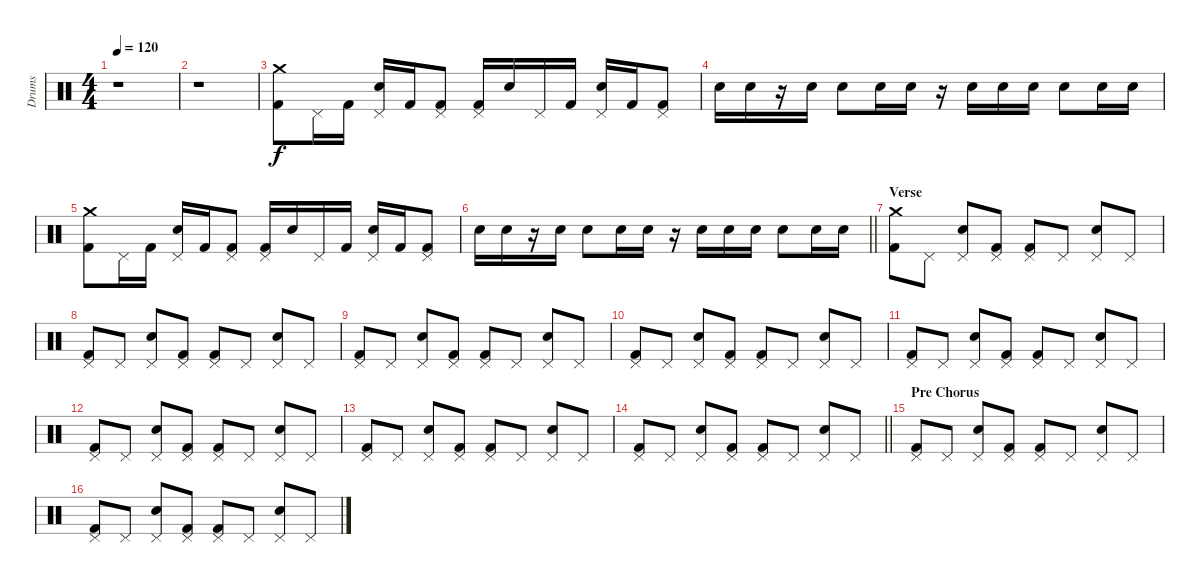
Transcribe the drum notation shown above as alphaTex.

\track ("Drums" "Drums") {instrument percussion}
\staff {score}
\articulation defaults
\ts (4 4)
\tempo 120
\clef neutral
\ks c
r.1{dy mp} |
r.1 |
("Crash medium (hit)" "Kick (hit) 2").8{dy f} "Pedal Hi-Hat (hit)".16 "Kick (hit) 2".16 ("Pedal Hi-Hat (hit)" "Electric Snare (hit)").16 "Kick (hit) 2".16 ("Pedal Hi-Hat (hit)" "Kick (hit) 2").8 ("Pedal Hi-Hat (hit)" "Kick (hit) 2").16 "Electric Snare (hit)".16 "Pedal Hi-Hat (hit)".16 "Kick (hit) 2".16 ("Pedal Hi-Hat (hit)" "Electric Snare (hit)").16 "Kick (hit) 2".16 ("Pedal Hi-Hat (hit)" "Kick (hit) 2").8 |
"Electric Snare (hit)".16 "Electric Snare (hit)".16 r.16 "Electric Snare (hit)".16 "Electric Snare (hit)".8 "Electric Snare (hit)".16 "Electric Snare (hit)".16 r.16 "Electric Snare (hit)".16 "Electric Snare (hit)".16 "Electric Snare (hit)".16 "Electric Snare (hit)".8 "Electric Snare (hit)".16 "Electric Snare (hit)".16 |
("Crash medium (hit)" "Kick (hit) 2").8 "Pedal Hi-Hat (hit)".16 "Kick (hit) 2".16 ("Pedal Hi-Hat (hit)" "Electric Snare (hit)").16 "Kick (hit) 2".16 ("Pedal Hi-Hat (hit)" "Kick (hit) 2").8 ("Pedal Hi-Hat (hit)" "Kick (hit) 2").16 "Electric Snare (hit)".16 "Pedal Hi-Hat (hit)".16 "Kick (hit) 2".16 ("Pedal Hi-Hat (hit)" "Electric Snare (hit)").16 "Kick (hit) 2".16 ("Pedal Hi-Hat (hit)" "Kick (hit) 2").8 |
\barLineRight lightlight "Electric Snare (hit)".16 "Electric Snare (hit)".16
r.16 "Electric Snare (hit)".16 "Electric Snare (hit)".8 "Electric Snare (hit)".16 "Electric Snare (hit)".16 r.16 "Electric Snare (hit)".16 "Electric Snare (hit)".16 "Electric Snare (hit)".16 "Electric Snare (hit)".8 "Electric Snare (hit)".16 "Electric Snare (hit)".16 |
\section ("" "Verse")
("Crash medium (hit)" "Kick (hit) 2").8 "Pedal Hi-Hat (hit)".8 ("Pedal Hi-Hat (hit)" "Electric Snare (hit)").8 ("Pedal Hi-Hat (hit)" "Kick (hit) 2").8 ("Pedal Hi-Hat (hit)" "Kick (hit) 2").8 "Pedal Hi-Hat (hit)".8 ("Pedal Hi-Hat (hit)" "Electric Snare (hit)").8 "Pedal Hi-Hat (hit)".8 |
("Pedal Hi-Hat (hit)" "Kick (hit) 2").8 "Pedal Hi-Hat (hit)".8 ("Pedal Hi-Hat (hit)" "Electric Snare (hit)").8 ("Pedal Hi-Hat (hit)" "Kick (hit) 2").8 ("Pedal Hi-Hat (hit)" "Kick (hit) 2").8 "Pedal Hi-Hat (hit)".8 ("Pedal Hi-Hat (hit)" "Electric Snare (hit)").8 "Pedal Hi-Hat (hit)".8 |
("Pedal Hi-Hat (hit)" "Kick (hit) 2").8 "Pedal Hi-Hat (hit)".8 ("Pedal Hi-Hat (hit)" "Electric Snare (hit)").8 ("Pedal Hi-Hat (hit)" "Kick (hit) 2").8 ("Pedal Hi-Hat (hit)" "Kick (hit) 2").8 "Pedal Hi-Hat (hit)".8 ("Pedal Hi-Hat (hit)" "Electric Snare (hit)").8 "Pedal Hi-Hat (hit)".8 |
("Pedal Hi-Hat (hit)" "Kick (hit) 2").8 "Pedal Hi-Hat (hit)".8 ("Pedal Hi-Hat (hit)" "Electric Snare (hit)").8 ("Pedal Hi-Hat (hit)" "Kick (hit) 2").8 ("Pedal Hi-Hat (hit)" "Kick (hit) 2").8 "Pedal Hi-Hat (hit)".8 ("Pedal Hi-Hat (hit)" "Electric Snare (hit)").8 "Pedal Hi-Hat (hit)".8 |
("Pedal Hi-Hat (hit)" "Kick (hit) 2").8 "Pedal Hi-Hat (hit)".8 ("Pedal Hi-Hat (hit)" "Electric Snare (hit)").8 ("Pedal Hi-Hat (hit)" "Kick (hit) 2").8 ("Pedal Hi-Hat (hit)" "Kick (hit) 2").8 "Pedal Hi-Hat (hit)".8 ("Pedal Hi-Hat (hit)" "Electric Snare (hit)").8 "Pedal Hi-Hat (hit)".8 |
("Pedal Hi-Hat (hit)" "Kick (hit) 2").8 "Pedal Hi-Hat (hit)".8 ("Pedal Hi-Hat (hit)" "Electric Snare (hit)").8 ("Pedal Hi-Hat (hit)" "Kick (hit) 2").8 ("Pedal Hi-Hat (hit)" "Kick (hit) 2").8 "Pedal Hi-Hat (hit)".8 ("Pedal Hi-Hat (hit)" "Electric Snare (hit)").8 "Pedal Hi-Hat (hit)".8 |
("Pedal Hi-Hat (hit)" "Kick (hit) 2").8 "Pedal Hi-Hat (hit)".8 ("Pedal Hi-Hat (hit)" "Electric Snare (hit)").8 ("Pedal Hi-Hat (hit)" "Kick (hit) 2").8 ("Pedal Hi-Hat (hit)" "Kick (hit) 2").8 "Pedal Hi-Hat (hit)".8 ("Pedal Hi-Hat (hit)" "Electric Snare (hit)").8 "Pedal Hi-Hat (hit)".8 |
\barLineRight lightlight
("Pedal Hi-Hat (hit)" "Kick (hit) 2").8 "Pedal Hi-Hat (hit)".8 ("Pedal Hi-Hat (hit)" "Electric Snare (hit)").8 ("Pedal Hi-Hat (hit)" "Kick (hit) 2").8 ("Pedal Hi-Hat (hit)" "Kick (hit) 2").8 "Pedal Hi-Hat (hit)".8 ("Pedal Hi-Hat (hit)" "Electric Snare (hit)").8 "Pedal Hi-Hat (hit)".8 |
\section ("" "Pre Chorus")
("Pedal Hi-Hat (hit)" "Kick (hit) 2").8 "Pedal Hi-Hat (hit)".8 ("Pedal Hi-Hat (hit)" "Electric Snare (hit)").8 ("Pedal Hi-Hat (hit)" "Kick (hit) 2").8 ("Pedal Hi-Hat (hit)" "Kick (hit) 2").8 "Pedal Hi-Hat (hit)".8 ("Pedal Hi-Hat (hit)" "Electric Snare (hit)").8 "Pedal Hi-Hat (hit)".8 |
("Pedal Hi-Hat (hit)" "Kick (hit) 2").8 "Pedal Hi-Hat (hit)".8 ("Pedal Hi-Hat (hit)" "Electric Snare (hit)").8 ("Pedal Hi-Hat (hit)" "Kick (hit) 2").8 ("Pedal Hi-Hat (hit)" "Kick (hit) 2").8 "Pedal Hi-Hat (hit)".8 ("Pedal Hi-Hat (hit)" "Electric Snare (hit)").8 "Pedal Hi-Hat (hit)".8
